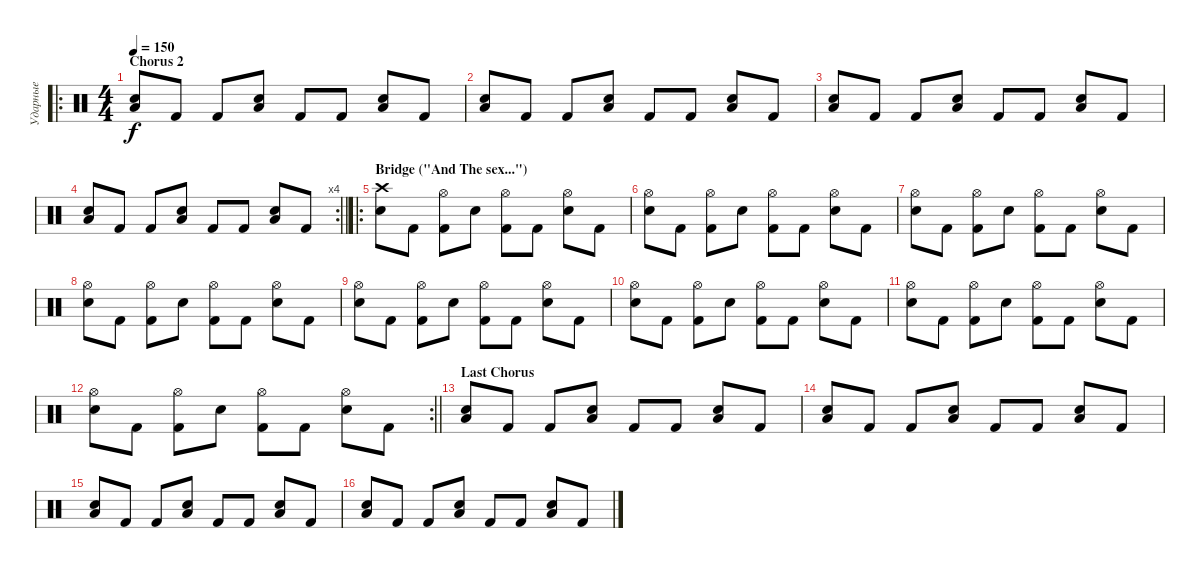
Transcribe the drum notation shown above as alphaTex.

\track ("Ударные" "Ударные") {instrument percussion}
\staff {score}
\articulation defaults
\ro
\ts (4 4)
\section ("" "Chorus 2")
\tempo 150
\clef neutral
\ks c
("Low Tom (hit)" "Electric Snare (hit)").8{dy f} "Kick (hit) 2".8 "Kick (hit) 2".8 ("Electric Snare (hit)" "Low Tom (hit)").8 "Kick (hit) 2".8 "Kick (hit) 2".8 ("Electric Snare (hit)" "Low Tom (hit)").8 "Kick (hit) 2".8 |
("Low Tom (hit)" "Electric Snare (hit)").8 "Kick (hit) 2".8 "Kick (hit) 2".8 ("Electric Snare (hit)" "Low Tom (hit)").8 "Kick (hit) 2".8 "Kick (hit) 2".8 ("Electric Snare (hit)" "Low Tom (hit)").8 "Kick (hit) 2".8 |
("Low Tom (hit)" "Electric Snare (hit)").8 "Kick (hit) 2".8 "Kick (hit) 2".8 ("Electric Snare (hit)" "Low Tom (hit)").8 "Kick (hit) 2".8 "Kick (hit) 2".8 ("Electric Snare (hit)" "Low Tom (hit)").8 "Kick (hit) 2".8 |
\rc 4
\barLineRight lightlight
("Low Tom (hit)" "Electric Snare (hit)").8 "Kick (hit) 2".8 "Kick (hit) 2".8 ("Electric Snare (hit)" "Low Tom (hit)").8 "Kick (hit) 2".8 "Kick (hit) 2".8 ("Electric Snare (hit)" "Low Tom (hit)").8 "Kick (hit) 2".8 |
\ro
\section ("" "Bridge (\"And The sex...\")")
("Crash high (hit)" "Electric Snare (hit)").8 "Kick (hit) 2".8 ("Kick (hit) 2" "Hi-Hat (open)").8 "Snare (hit) 2".8 ("Kick (hit) 2" "Hi-Hat (open)").8 "Kick (hit) 2".8 ("Snare (hit) 2" "Hi-Hat (open)").8 "Kick (hit) 2".8 |
("Hi-Hat (open)" "Electric Snare (hit)").8 "Kick (hit) 2".8 ("Kick (hit) 2" "Hi-Hat (open)").8 "Snare (hit) 2".8 ("Kick (hit) 2" "Hi-Hat (open)").8 "Kick (hit) 2".8 ("Snare (hit) 2" "Hi-Hat (open)").8 "Kick (hit) 2".8 |
("Hi-Hat (open)" "Electric Snare (hit)").8 "Kick (hit) 2".8 ("Kick (hit) 2" "Hi-Hat (open)").8 "Snare (hit) 2".8 ("Kick (hit) 2" "Hi-Hat (open)").8 "Kick (hit) 2".8 ("Snare (hit) 2" "Hi-Hat (open)").8 "Kick (hit) 2".8 |
("Hi-Hat (open)" "Electric Snare (hit)").8 "Kick (hit) 2".8 ("Kick (hit) 2" "Hi-Hat (open)").8 "Snare (hit) 2".8 ("Kick (hit) 2" "Hi-Hat (open)").8 "Kick (hit) 2".8 ("Snare (hit) 2" "Hi-Hat (open)").8 "Kick (hit) 2".8 |
("Hi-Hat (open)" "Electric Snare (hit)").8 "Kick (hit) 2".8 ("Kick (hit) 2" "Hi-Hat (open)").8 "Snare (hit) 2".8 ("Kick (hit) 2" "Hi-Hat (open)").8 "Kick (hit) 2".8 ("Snare (hit) 2" "Hi-Hat (open)").8 "Kick (hit) 2".8 |
("Hi-Hat (open)" "Electric Snare (hit)").8 "Kick (hit) 2".8 ("Kick (hit) 2" "Hi-Hat (open)").8 "Snare (hit) 2".8 ("Kick (hit) 2" "Hi-Hat (open)").8 "Kick (hit) 2".8 ("Snare (hit) 2" "Hi-Hat (open)").8 "Kick (hit) 2".8 |
("Hi-Hat (open)" "Electric Snare (hit)").8 "Kick (hit) 2".8 ("Kick (hit) 2" "Hi-Hat (open)").8 "Snare (hit) 2".8 ("Kick (hit) 2" "Hi-Hat (open)").8 "Kick (hit) 2".8 ("Snare (hit) 2" "Hi-Hat (open)").8 "Kick (hit) 2".8 |
\rc 2
\barLineRight lightlight
("Hi-Hat (open)" "Electric Snare (hit)").8 "Kick (hit) 2".8 ("Kick (hit) 2" "Hi-Hat (open)").8 "Snare (hit) 2".8 ("Kick (hit) 2" "Hi-Hat (open)").8 "Kick (hit) 2".8 ("Snare (hit) 2" "Hi-Hat (open)").8 "Kick (hit) 2".8 |
\section ("" "Last Chorus")
("Low Tom (hit)" "Electric Snare (hit)").8 "Kick (hit) 2".8 "Kick (hit) 2".8 ("Electric Snare (hit)" "Low Tom (hit)").8 "Kick (hit) 2".8 "Kick (hit) 2".8 ("Electric Snare (hit)" "Low Tom (hit)").8 "Kick (hit) 2".8 |
("Low Tom (hit)" "Electric Snare (hit)").8 "Kick (hit) 2".8 "Kick (hit) 2".8 ("Electric Snare (hit)" "Low Tom (hit)").8 "Kick (hit) 2".8 "Kick (hit) 2".8 ("Electric Snare (hit)" "Low Tom (hit)").8 "Kick (hit) 2".8 |
("Low Tom (hit)" "Electric Snare (hit)").8 "Kick (hit) 2".8 "Kick (hit) 2".8 ("Electric Snare (hit)" "Low Tom (hit)").8 "Kick (hit) 2".8 "Kick (hit) 2".8 ("Electric Snare (hit)" "Low Tom (hit)").8 "Kick (hit) 2".8 |
("Low Tom (hit)" "Electric Snare (hit)").8 "Kick (hit) 2".8 "Kick (hit) 2".8 ("Electric Snare (hit)" "Low Tom (hit)").8 "Kick (hit) 2".8 "Kick (hit) 2".8 ("Electric Snare (hit)" "Low Tom (hit)").8 "Kick (hit) 2".8
